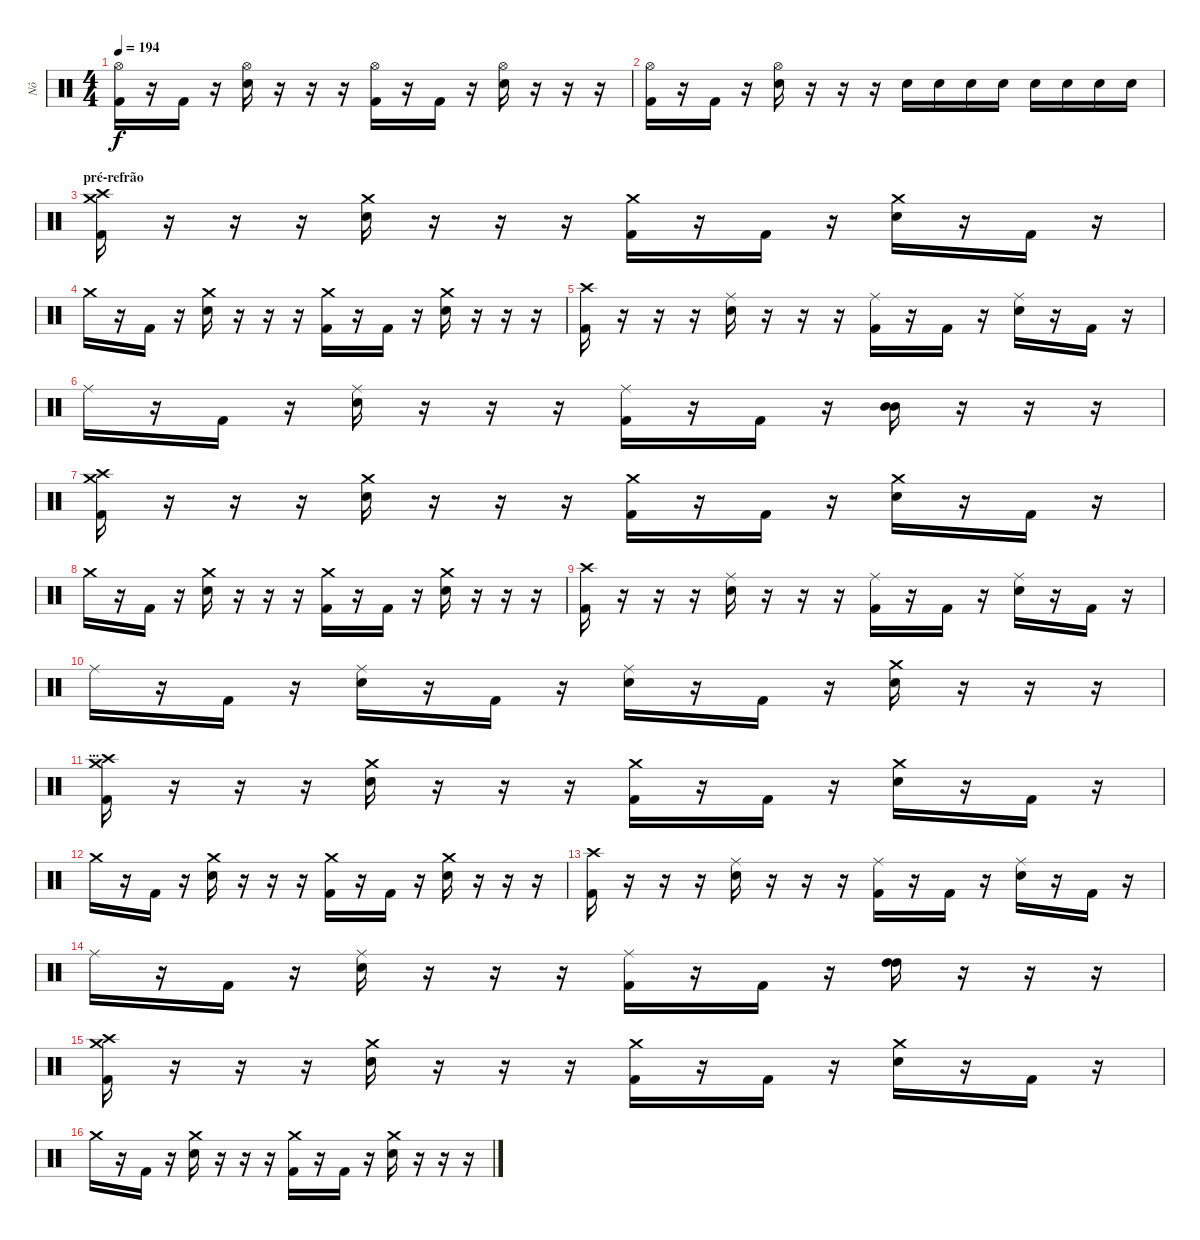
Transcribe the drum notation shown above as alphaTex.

\track ("Nô" "Nô") {instrument percussion}
\staff {score}
\articulation defaults
\ts (4 4)
\tempo 194
\clef neutral
\ks c
("Hi-Hat (open)" "Kick (hit) 2").16{dy f} r.16 "Kick (hit) 2".16 r.16 ("Hi-Hat (open)" "Electric Snare (hit)").16 r.16 r.16 r.16 ("Hi-Hat (open)" "Kick (hit) 2").16 r.16 "Kick (hit) 2".16 r.16 ("Hi-Hat (open)" "Electric Snare (hit)").16 r.16 r.16 r.16 |
("Hi-Hat (open)" "Kick (hit) 2").16 r.16 "Kick (hit) 2".16 r.16 ("Hi-Hat (open)" "Electric Snare (hit)").16 r.16 r.16 r.16 "Electric Snare (hit)".16 "Electric Snare (hit)".16 "Electric Snare (hit)".16 "Electric Snare (hit)".16 "Electric Snare (hit)".16 "Electric Snare (hit)".16 "Electric Snare (hit)".16 "Electric Snare (hit)".16 |
\section ("" "pré-refrão")
("Crash medium (hit)" "Crash high (hit)" "Kick (hit) 2").16 r.16 r.16 r.16 ("Crash medium (hit)" "Electric Snare (hit)").16 r.16 r.16 r.16 ("Crash medium (hit)" "Kick (hit) 2").16 r.16 "Kick (hit) 2".16 r.16 ("Crash medium (hit)" "Electric Snare (hit)").16 r.16 "Kick (hit) 2".16 r.16 |
"Crash medium (hit)".16 r.16 "Kick (hit) 2".16 r.16 ("Crash medium (hit)" "Electric Snare (hit)").16 r.16 r.16 r.16 ("Crash medium (hit)" "Kick (hit) 2").16 r.16 "Kick (hit) 2".16 r.16 ("Crash medium (hit)" "Electric Snare (hit)").16 r.16 r.16 r.16 |
("Crash high (hit)" "Kick (hit) 2").16 r.16 r.16 r.16 ("Ride (middle)" "Electric Snare (hit)").16 r.16 r.16 r.16 ("Ride (middle)" "Kick (hit) 2").16 r.16 "Kick (hit) 2".16 r.16 ("Ride (middle)" "Electric Snare (hit)").16 r.16 "Kick (hit) 2".16 r.16 |
"Ride (middle)".16 r.16 "Kick (hit) 2".16 r.16 ("Ride (middle)" "Electric Snare (hit)").16 r.16 r.16 r.16 ("Ride (middle)" "Kick (hit) 2").16 r.16 "Kick (hit) 2".16 r.16 ("Mid Tom (hit)" "Mid Tom (hit)").16 r.16 r.16 r.16 |
("Crash medium (hit)" "Crash high (hit)" "Kick (hit) 2").16 r.16 r.16 r.16 ("Crash medium (hit)" "Electric Snare (hit)").16 r.16 r.16 r.16 ("Crash medium (hit)" "Kick (hit) 2").16 r.16 "Kick (hit) 2".16 r.16 ("Crash medium (hit)" "Electric Snare (hit)").16 r.16 "Kick (hit) 2".16 r.16 |
"Crash medium (hit)".16 r.16 "Kick (hit) 2".16 r.16 ("Crash medium (hit)" "Electric Snare (hit)").16 r.16 r.16 r.16 ("Crash medium (hit)" "Kick (hit) 2").16 r.16 "Kick (hit) 2".16 r.16 ("Crash medium (hit)" "Electric Snare (hit)").16 r.16 r.16 r.16 |
("Crash high (hit)" "Kick (hit) 2").16 r.16 r.16 r.16 ("Ride (middle)" "Electric Snare (hit)").16 r.16 r.16 r.16 ("Ride (middle)" "Kick (hit) 2").16 r.16 "Kick (hit) 2".16 r.16 ("Ride (middle)" "Electric Snare (hit)").16 r.16 "Kick (hit) 2".16 r.16 |
"Ride (middle)".16 r.16 "Kick (hit) 2".16 r.16 ("Ride (middle)" "Electric Snare (hit)").16 r.16 "Kick (hit) 2".16 r.16 ("Ride (middle)" "Electric Snare (hit)").16 r.16 "Kick (hit) 2".16 r.16 ("Crash medium (hit)" "Electric Snare (hit)").16 r.16 r.16 r.16 |
\section ("" "...")
("Crash medium (hit)" "Crash high (hit)" "Kick (hit) 2").16 r.16 r.16 r.16 ("Crash medium (hit)" "Electric Snare (hit)").16 r.16 r.16 r.16 ("Crash medium (hit)" "Kick (hit) 2").16 r.16 "Kick (hit) 2".16 r.16 ("Crash medium (hit)" "Electric Snare (hit)").16 r.16 "Kick (hit) 2".16 r.16 |
"Crash medium (hit)".16 r.16 "Kick (hit) 2".16 r.16 ("Crash medium (hit)" "Electric Snare (hit)").16 r.16 r.16 r.16 ("Crash medium (hit)" "Kick (hit) 2").16 r.16 "Kick (hit) 2".16 r.16 ("Crash medium (hit)" "Electric Snare (hit)").16 r.16 r.16 r.16 |
("Crash high (hit)" "Kick (hit) 2").16 r.16 r.16 r.16 ("Ride (middle)" "Electric Snare (hit)").16 r.16 r.16 r.16 ("Ride (middle)" "Kick (hit) 2").16 r.16 "Kick (hit) 2".16 r.16 ("Ride (middle)" "Electric Snare (hit)").16 r.16 "Kick (hit) 2".16 r.16 |
"Ride (middle)".16 r.16 "Kick (hit) 2".16 r.16 ("Ride (middle)" "Electric Snare (hit)").16 r.16 r.16 r.16 ("Ride (middle)" "Kick (hit) 2").16 r.16 "Kick (hit) 2".16 r.16 ("High Tom (hit)" "High Tom (hit)").16 r.16 r.16 r.16 |
("Crash medium (hit)" "Crash high (hit)" "Kick (hit) 2").16 r.16 r.16 r.16 ("Crash medium (hit)" "Electric Snare (hit)").16 r.16 r.16 r.16 ("Crash medium (hit)" "Kick (hit) 2").16 r.16 "Kick (hit) 2".16 r.16 ("Crash medium (hit)" "Electric Snare (hit)").16 r.16 "Kick (hit) 2".16 r.16 |
"Crash medium (hit)".16 r.16 "Kick (hit) 2".16 r.16 ("Crash medium (hit)" "Electric Snare (hit)").16 r.16 r.16 r.16 ("Crash medium (hit)" "Kick (hit) 2").16 r.16 "Kick (hit) 2".16 r.16 ("Crash medium (hit)" "Electric Snare (hit)").16 r.16 r.16 r.16
